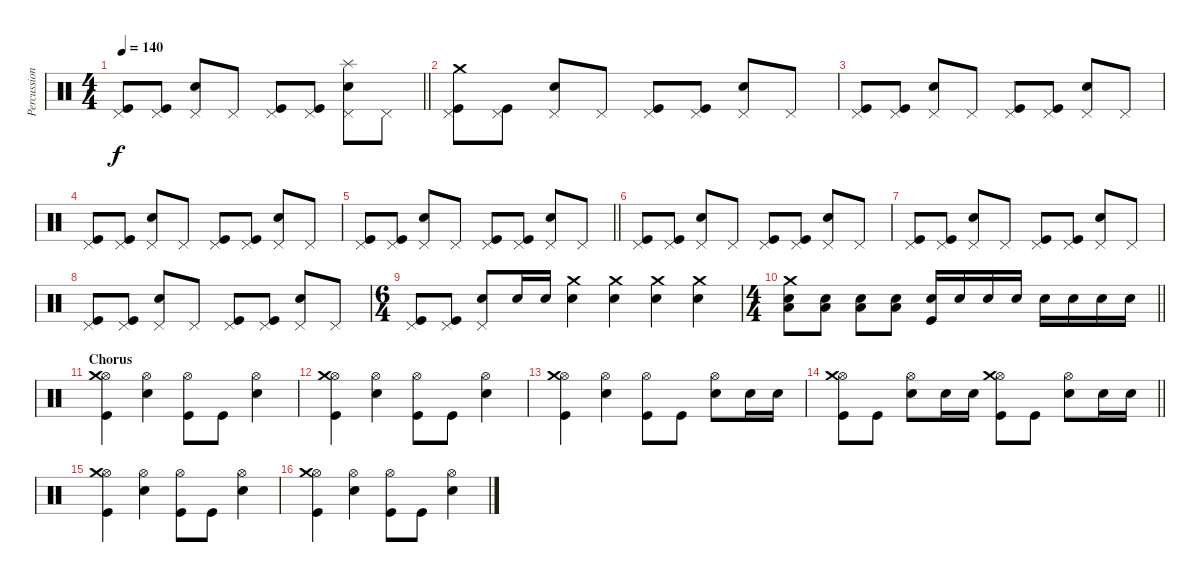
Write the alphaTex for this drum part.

\track ("Percussion" "Percussion") {instrument percussion}
\staff {score}
\articulation defaults
\ts (4 4)
\tempo 140
\clef neutral
\barLineRight lightlight
\ks c
("Pedal Hi-Hat (hit)" "Kick (hit)").8{dy f} ("Pedal Hi-Hat (hit)" "Kick (hit)").8 ("Pedal Hi-Hat (hit)" "Electric Snare (hit)").8 "Pedal Hi-Hat (hit)".8 ("Pedal Hi-Hat (hit)" "Kick (hit)").8 ("Pedal Hi-Hat (hit)" "Kick (hit)").8 ("Pedal Hi-Hat (hit)" "Electric Snare (hit)" "Splash (hit)").8 "Pedal Hi-Hat (hit)".8 |
("Pedal Hi-Hat (hit)" "Kick (hit)" "Crash medium (hit)").8 ("Pedal Hi-Hat (hit)" "Kick (hit)").8 ("Pedal Hi-Hat (hit)" "Electric Snare (hit)").8 "Pedal Hi-Hat (hit)".8 ("Pedal Hi-Hat (hit)" "Kick (hit)").8 ("Pedal Hi-Hat (hit)" "Kick (hit)").8 ("Pedal Hi-Hat (hit)" "Electric Snare (hit)").8 "Pedal Hi-Hat (hit)".8 |
("Pedal Hi-Hat (hit)" "Kick (hit)").8 ("Pedal Hi-Hat (hit)" "Kick (hit)").8 ("Pedal Hi-Hat (hit)" "Electric Snare (hit)").8 "Pedal Hi-Hat (hit)".8 ("Pedal Hi-Hat (hit)" "Kick (hit)").8 ("Pedal Hi-Hat (hit)" "Kick (hit)").8 ("Pedal Hi-Hat (hit)" "Electric Snare (hit)").8 "Pedal Hi-Hat (hit)".8 |
("Pedal Hi-Hat (hit)" "Kick (hit)").8 ("Pedal Hi-Hat (hit)" "Kick (hit)").8 ("Pedal Hi-Hat (hit)" "Electric Snare (hit)").8 "Pedal Hi-Hat (hit)".8 ("Pedal Hi-Hat (hit)" "Kick (hit)").8 ("Pedal Hi-Hat (hit)" "Kick (hit)").8 ("Pedal Hi-Hat (hit)" "Electric Snare (hit)").8 "Pedal Hi-Hat (hit)".8 |
\barLineRight lightlight
("Pedal Hi-Hat (hit)" "Kick (hit)").8 ("Pedal Hi-Hat (hit)" "Kick (hit)").8 ("Pedal Hi-Hat (hit)" "Electric Snare (hit)").8 "Pedal Hi-Hat (hit)".8 ("Pedal Hi-Hat (hit)" "Kick (hit)").8 ("Pedal Hi-Hat (hit)" "Kick (hit)").8 ("Pedal Hi-Hat (hit)" "Electric Snare (hit)").8 "Pedal Hi-Hat (hit)".8 |
("Pedal Hi-Hat (hit)" "Kick (hit)").8 ("Pedal Hi-Hat (hit)" "Kick (hit)").8 ("Pedal Hi-Hat (hit)" "Electric Snare (hit)").8 "Pedal Hi-Hat (hit)".8 ("Pedal Hi-Hat (hit)" "Kick (hit)").8 ("Pedal Hi-Hat (hit)" "Kick (hit)").8 ("Pedal Hi-Hat (hit)" "Electric Snare (hit)").8 "Pedal Hi-Hat (hit)".8 |
("Pedal Hi-Hat (hit)" "Kick (hit)").8 ("Pedal Hi-Hat (hit)" "Kick (hit)").8 ("Pedal Hi-Hat (hit)" "Electric Snare (hit)").8 "Pedal Hi-Hat (hit)".8 ("Pedal Hi-Hat (hit)" "Kick (hit)").8 ("Pedal Hi-Hat (hit)" "Kick (hit)").8 ("Pedal Hi-Hat (hit)" "Electric Snare (hit)").8 "Pedal Hi-Hat (hit)".8 |
("Pedal Hi-Hat (hit)" "Kick (hit)").8 ("Pedal Hi-Hat (hit)" "Kick (hit)").8 ("Pedal Hi-Hat (hit)" "Electric Snare (hit)").8 "Pedal Hi-Hat (hit)".8 ("Pedal Hi-Hat (hit)" "Kick (hit)").8 ("Pedal Hi-Hat (hit)" "Kick (hit)").8 ("Pedal Hi-Hat (hit)" "Electric Snare (hit)").8 "Pedal Hi-Hat (hit)".8 |
\ts (6 4)
("Pedal Hi-Hat (hit)" "Kick (hit)").8 ("Pedal Hi-Hat (hit)" "Kick (hit)").8 ("Pedal Hi-Hat (hit)" "Electric Snare (hit)").8 "Electric Snare (hit)".16 "Electric Snare (hit)".16 ("Electric Snare (hit)" "Crash medium (hit)").4 ("Electric Snare (hit)" "Crash medium (hit)").4 ("Electric Snare (hit)" "Crash medium (hit)").4 ("Electric Snare (hit)" "Crash medium (hit)").4 |
\ts (4 4)
\barLineRight lightlight
("Electric Snare (hit)" "Low Tom (hit)" "Crash medium (hit)").8 ("Electric Snare (hit)" "Low Tom (hit)").8 ("Electric Snare (hit)" "Low Tom (hit)").8 ("Electric Snare (hit)" "Low Tom (hit)").8 ("Electric Snare (hit)" "Kick (hit)").16 "Electric Snare (hit)".16 "Electric Snare (hit)".16 "Electric Snare (hit)".16 "Electric Snare (hit)".16 "Electric Snare (hit)".16 "Electric Snare (hit)".16 "Electric Snare (hit)".16 |
\section ("" "Chorus")
("Hi-Hat (open)" "Kick (hit)" "Crash medium (hit)").4 ("Hi-Hat (open)" "Electric Snare (hit)").4 ("Hi-Hat (open)" "Kick (hit)").8 "Kick (hit)".8 ("Hi-Hat (open)" "Electric Snare (hit)").4 |
("Hi-Hat (open)" "Kick (hit)" "Crash medium (hit)").4 ("Hi-Hat (open)" "Electric Snare (hit)").4 ("Hi-Hat (open)" "Kick (hit)").8 "Kick (hit)".8 ("Hi-Hat (open)" "Electric Snare (hit)").4 |
("Hi-Hat (open)" "Kick (hit)" "Crash medium (hit)").4 ("Hi-Hat (open)" "Electric Snare (hit)").4 ("Hi-Hat (open)" "Kick (hit)").8 "Kick (hit)".8 ("Hi-Hat (open)" "Electric Snare (hit)").8 "Electric Snare (hit)".16 "Electric Snare (hit)".16 |
\barLineRight lightlight
("Hi-Hat (open)" "Kick (hit)" "Crash medium (hit)").8 "Kick (hit)".8 ("Hi-Hat (open)" "Electric Snare (hit)").8 "Electric Snare (hit)".16 "Electric Snare (hit)".16 ("Hi-Hat (open)" "Kick (hit)" "Crash medium (hit)").8 "Kick (hit)".8 ("Hi-Hat (open)" "Electric Snare (hit)").8 "Electric Snare (hit)".16 "Electric Snare (hit)".16 |
("Hi-Hat (open)" "Kick (hit)" "Crash medium (hit)").4 ("Hi-Hat (open)" "Electric Snare (hit)").4 ("Hi-Hat (open)" "Kick (hit)").8 "Kick (hit)".8 ("Hi-Hat (open)" "Electric Snare (hit)").4 |
("Hi-Hat (open)" "Kick (hit)" "Crash medium (hit)").4 ("Hi-Hat (open)" "Electric Snare (hit)").4 ("Hi-Hat (open)" "Kick (hit)").8 "Kick (hit)".8 ("Hi-Hat (open)" "Electric Snare (hit)").4
